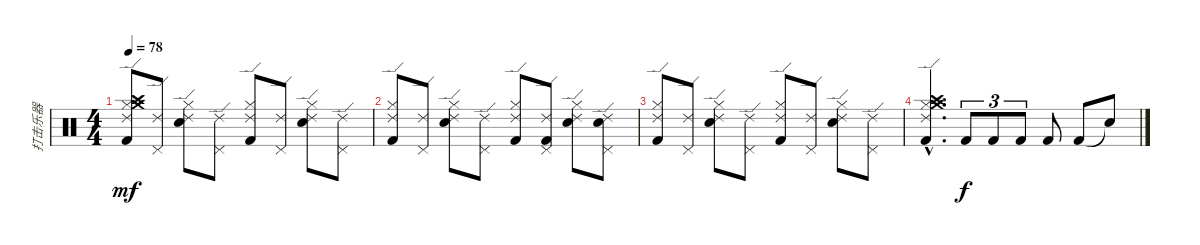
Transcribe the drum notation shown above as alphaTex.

\track ("打击乐器" "打击乐器") {instrument percussion}
\staff {score}
\articulation defaults
\ts (4 4)
\tempo 78
\clef neutral
\ks c
("Kick (hit) 2" "Hi-Hat (closed)" "Crash medium (hit)" "Crash high (hit)" "Ride (edge) 2").8{dy mf} ("Pedal Hi-Hat (hit)" "Ride (edge) 2").8 ("Electric Snare (hit)" "Hi-Hat (closed)" "Ride (edge) 2").8 ("Pedal Hi-Hat (hit)" "Ride (edge) 2").8 ("Kick (hit) 2" "Hi-Hat (closed)" "Ride (edge) 2").8 ("Pedal Hi-Hat (hit)" "Ride (edge) 2").8 ("Electric Snare (hit)" "Hi-Hat (closed)" "Ride (edge) 2").8 ("Pedal Hi-Hat (hit)" "Ride (edge) 2").8 |
("Kick (hit) 2" "Hi-Hat (closed)" "Ride (edge) 2").8 ("Pedal Hi-Hat (hit)" "Ride (edge) 2").8 ("Electric Snare (hit)" "Hi-Hat (closed)" "Ride (edge) 2").8 ("Pedal Hi-Hat (hit)" "Ride (edge) 2").8 ("Kick (hit) 2" "Hi-Hat (closed)" "Ride (edge) 2").8 ("Kick (hit) 2" "Pedal Hi-Hat (hit)" "Ride (edge) 2").8 ("Electric Snare (hit)" "Hi-Hat (closed)" "Ride (edge) 2").8 ("Electric Snare (hit)" "Pedal Hi-Hat (hit)" "Ride (edge) 2").8 |
("Kick (hit) 2" "Hi-Hat (closed)" "Ride (edge) 2").8 ("Pedal Hi-Hat (hit)" "Ride (edge) 2").8 ("Electric Snare (hit)" "Hi-Hat (closed)" "Ride (edge) 2").8 ("Pedal Hi-Hat (hit)" "Ride (edge) 2").8 ("Kick (hit) 2" "Hi-Hat (closed)" "Ride (edge) 2").8 ("Pedal Hi-Hat (hit)" "Ride (edge) 2").8 ("Electric Snare (hit)" "Hi-Hat (closed)" "Ride (edge) 2").8 ("Pedal Hi-Hat (hit)" "Ride (edge) 2").8 |
("Kick (hit) 2"{hac} "Hi-Hat (closed)"{hac} "Crash medium (hit)"{hac} "Crash high (hit)"{hac} "Ride (edge) 2"{hac}).4{d} "Kick (hit) 2".8{tu (3 2) dy f} "Kick (hit) 2".8{tu (3 2)} "Kick (hit) 2".8{tu (3 2)} "Kick (hit) 2".8 "Kick (hit) 2".8 "Snare (hit)"{t}.8
